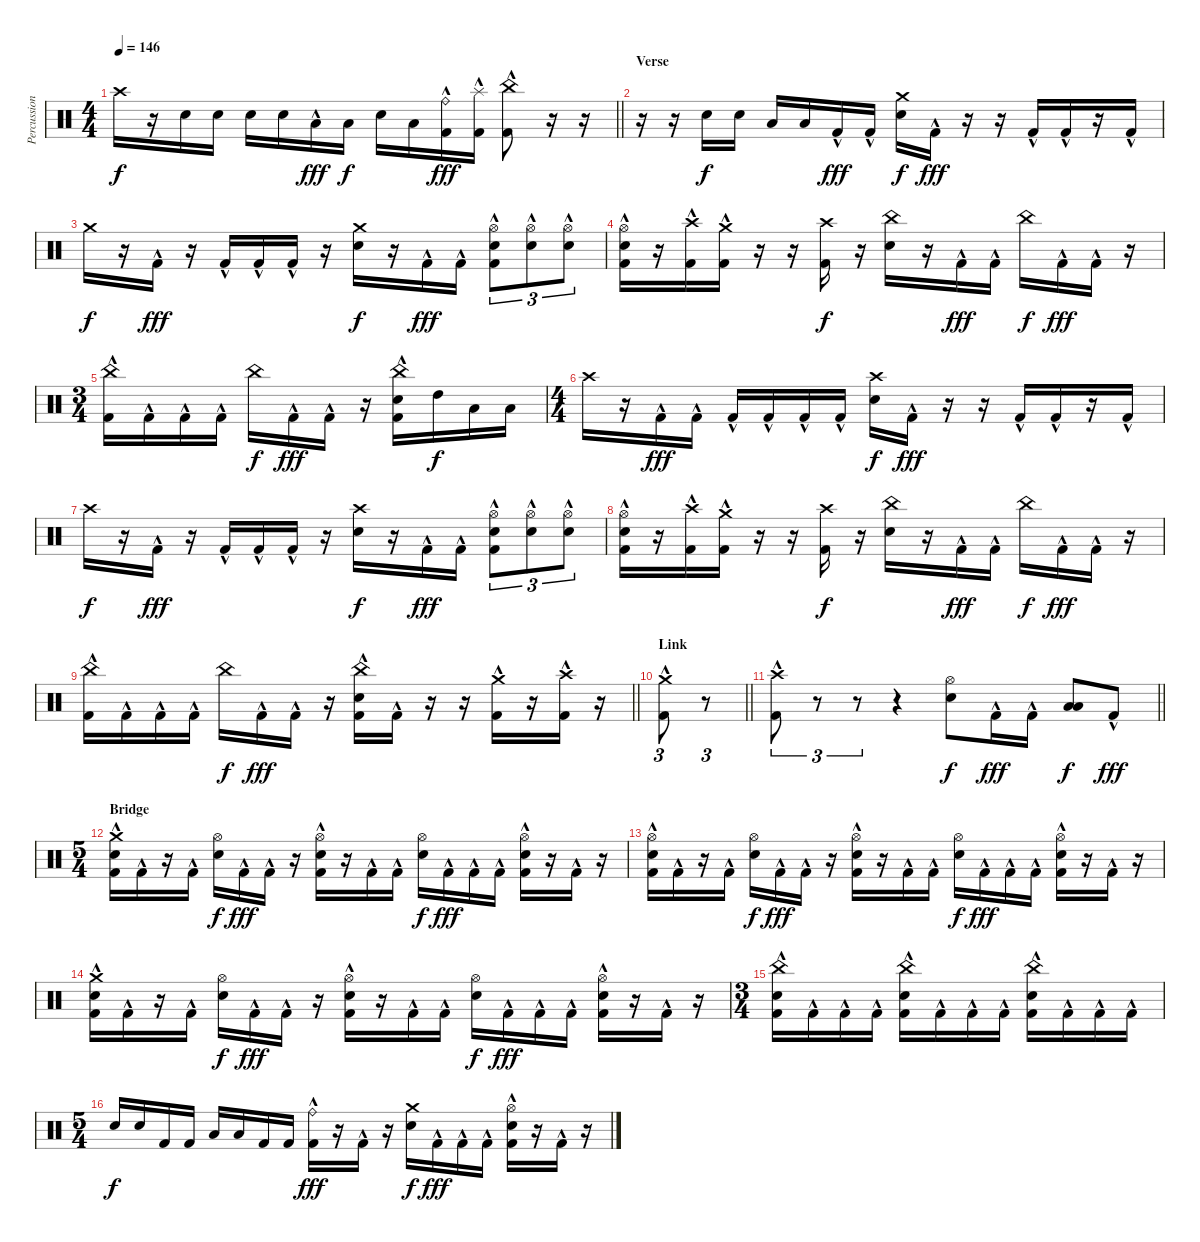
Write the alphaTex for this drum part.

\track ("Percussion" "Percussion") {instrument percussion}
\staff {score}
\articulation defaults
\ts (4 4)
\tempo 146
\clef neutral
\barLineRight lightlight
\ks aminor "Crash high (hit)".16{dy f}
r.16 "Electric Snare (hit)".16 "Electric Snare (hit)".16 "Electric Snare (hit)".16 "Electric Snare (hit)".16 "Low Floor Tom (hit)"{hac}.16{dy fff} "Low Tom (hit)".16{dy f} "Electric Snare (hit)".16 "Low Tom (hit)".16 ("Kick (hit) 2"{hac} "Ride (bell)").16{dy fff} ("Kick (hit) 2"{hac} "Splash (hit)"{hac}).16 ("Kick (hit) 2"{hac} "China (hit)").8 r.16 r.16 |
\section ("" "Verse")
r.16 r.16 "Electric Snare (hit)".16{dy f} "Electric Snare (hit)".16 "Low Tom (hit)".16 "Low Floor Tom (hit)".16 "Kick (hit) 2"{hac}.16{dy fff} "Kick (hit) 2"{hac}.16 ("Crash medium (hit)" "Electric Snare (hit)").16{dy f} "Kick (hit) 2"{hac}.16{dy fff} r.16 r.16 "Kick (hit) 2"{hac}.16 "Kick (hit) 2"{hac}.16 r.16 "Kick (hit) 2"{hac}.16 |
"Crash medium (hit)".16{dy f} r.16 "Kick (hit) 2"{hac}.16{dy fff} r.16 "Kick (hit) 2"{hac}.16 "Kick (hit) 2"{hac}.16 "Kick (hit) 2"{hac}.16 r.16 ("Electric Snare (hit)" "Crash medium (hit)").16{dy f} r.16 "Kick (hit) 2"{hac}.16{dy fff} "Kick (hit) 2"{hac}.16 ("Hi-Hat (open)" "Electric Snare (hit)" "Kick (hit) 2"{hac}).8{tu (3 2)} ("Hi-Hat (open)" "Electric Snare (hit)"{hac}).8{tu (3 2)} ("Hi-Hat (open)" "Electric Snare (hit)"{hac}).8{tu (3 2)} |
("Hi-Hat (open)" "Electric Snare (hit)" "Kick (hit) 2"{hac}).16 r.16 ("Crash high (hit)" "Kick (hit) 2"{hac}).16 ("Crash medium (hit)" "Kick (hit) 2"{hac}).16 r.16 r.16 ("Crash high (hit)" "Kick (hit) 2").16{dy f} r.16 ("Electric Snare (hit)" "China (hit)").16 r.16 "Kick (hit) 2"{hac}.16{dy fff} "Kick (hit) 2"{hac}.16 "China (hit)".16{dy f} "Kick (hit) 2"{hac}.16{dy fff} "Kick (hit) 2"{hac}.16 r.16 |
\ts (3 4)
("Kick (hit) 2"{hac} "China (hit)").16 "Kick (hit) 2"{hac}.16 "Kick (hit) 2"{hac}.16 "Kick (hit) 2"{hac}.16 "China (hit)".16{dy f} "Kick (hit) 2"{hac}.16{dy fff} "Kick (hit) 2"{hac}.16 r.16 ("Kick (hit) 2"{hac} "Electric Snare (hit)" "China (hit)").16 "High Tom (hit)".16{dy f} "Low Tom (hit)".16 "Low Floor Tom (hit)".16 |
\ts (4 4)
"Crash high (hit)".16 r.16 "Kick (hit) 2"{hac}.16{dy fff} "Kick (hit) 2"{hac}.16 "Kick (hit) 2"{hac}.16 "Kick (hit) 2"{hac}.16 "Kick (hit) 2"{hac}.16 "Kick (hit) 2"{hac}.16 ("Crash high (hit)" "Electric Snare (hit)").16{dy f} "Kick (hit) 2"{hac}.16{dy fff} r.16 r.16 "Kick (hit) 2"{hac}.16 "Kick (hit) 2"{hac}.16 r.16 "Kick (hit) 2"{hac}.16 |
"Crash high (hit)".16{dy f} r.16 "Kick (hit) 2"{hac}.16{dy fff} r.16 "Kick (hit) 2"{hac}.16 "Kick (hit) 2"{hac}.16 "Kick (hit) 2"{hac}.16 r.16 ("Crash high (hit)" "Electric Snare (hit)").16{dy f} r.16 "Kick (hit) 2"{hac}.16{dy fff} "Kick (hit) 2"{hac}.16 ("Hi-Hat (open)" "Electric Snare (hit)" "Kick (hit) 2"{hac}).8{tu (3 2)} ("Hi-Hat (open)" "Electric Snare (hit)"{hac}).8{tu (3 2)} ("Hi-Hat (open)" "Electric Snare (hit)"{hac}).8{tu (3 2)} |
("Hi-Hat (open)" "Electric Snare (hit)" "Kick (hit) 2"{hac}).16 r.16 ("Crash high (hit)" "Kick (hit) 2"{hac}).16 ("Crash medium (hit)" "Kick (hit) 2"{hac}).16 r.16 r.16 ("Crash high (hit)" "Kick (hit) 2").16{dy f} r.16 ("Electric Snare (hit)" "China (hit)").16 r.16 "Kick (hit) 2"{hac}.16{dy fff} "Kick (hit) 2"{hac}.16 "China (hit)".16{dy f} "Kick (hit) 2"{hac}.16{dy fff} "Kick (hit) 2"{hac}.16 r.16 |
\barLineRight lightlight
("Kick (hit) 2"{hac} "China (hit)").16 "Kick (hit) 2"{hac}.16 "Kick (hit) 2"{hac}.16 "Kick (hit) 2"{hac}.16 "China (hit)".16{dy f} "Kick (hit) 2"{hac}.16{dy fff} "Kick (hit) 2"{hac}.16 r.16 ("Kick (hit) 2"{hac} "Electric Snare (hit)" "China (hit)").16 "Kick (hit) 2"{hac}.16 r.16 r.16 ("Crash medium (hit)" "Kick (hit) 2"{hac}).16 r.16 ("Crash high (hit)" "Kick (hit) 2"{hac}).16 r.16 |
\section ("" "Link")
\barLineRight lightlight
("Crash medium (hit)" "Kick (hit) 2"{hac}).8{tu (3 2)} r.8{tu (3 2) volume 0} |
\barLineRight lightlight
("Crash high (hit)" "Kick (hit) 2"{hac}).8{tu (3 2) volume 13} r.8{tu (3 2) volume 0} r.8{tu (3 2)} r.4 ("Electric Snare (hit)" "Hi-Hat (open)").8{dy f volume 13} "Kick (hit) 2"{hac}.16{dy fff} "Kick (hit) 2"{hac}.16 ("Low Tom (hit)" "Low Floor Tom (hit)").8{dy f} "Kick (hit) 2"{hac}.8{dy fff} |
\ts (5 4)
\section ("" "Bridge")
("Kick (hit) 2"{hac} "Electric Snare (hit)" "Crash medium (hit)").16 "Kick (hit) 2"{hac}.16 r.16 "Kick (hit) 2"{hac}.16 ("Electric Snare (hit)" "Hi-Hat (open)").16{dy f} "Kick (hit) 2"{hac}.16{dy fff} "Kick (hit) 2"{hac}.16 r.16 ("Kick (hit) 2"{hac} "Electric Snare (hit)" "Hi-Hat (open)").16 r.16 "Kick (hit) 2"{hac}.16 "Kick (hit) 2"{hac}.16 ("Electric Snare (hit)" "Hi-Hat (open)").16{dy f} "Kick (hit) 2"{hac}.16{dy fff} "Kick (hit) 2"{hac}.16 "Kick (hit) 2"{hac}.16 ("Kick (hit) 2"{hac} "Electric Snare (hit)" "Hi-Hat (open)").16 r.16 "Kick (hit) 2"{hac}.16 r.16 |
("Kick (hit) 2"{hac} "Electric Snare (hit)" "Hi-Hat (open)").16 "Kick (hit) 2"{hac}.16 r.16 "Kick (hit) 2"{hac}.16 ("Electric Snare (hit)" "Hi-Hat (open)").16{dy f} "Kick (hit) 2"{hac}.16{dy fff} "Kick (hit) 2"{hac}.16 r.16 ("Kick (hit) 2"{hac} "Electric Snare (hit)" "Hi-Hat (open)").16 r.16 "Kick (hit) 2"{hac}.16 "Kick (hit) 2"{hac}.16 ("Electric Snare (hit)" "Hi-Hat (open)").16{dy f} "Kick (hit) 2"{hac}.16{dy fff} "Kick (hit) 2"{hac}.16 "Kick (hit) 2"{hac}.16 ("Kick (hit) 2"{hac} "Electric Snare (hit)" "Hi-Hat (open)").16 r.16 "Kick (hit) 2"{hac}.16 r.16 |
("Kick (hit) 2"{hac} "Electric Snare (hit)" "Crash medium (hit)").16 "Kick (hit) 2"{hac}.16 r.16 "Kick (hit) 2"{hac}.16 ("Electric Snare (hit)" "Hi-Hat (open)").16{dy f} "Kick (hit) 2"{hac}.16{dy fff} "Kick (hit) 2"{hac}.16 r.16 ("Kick (hit) 2"{hac} "Electric Snare (hit)" "Hi-Hat (open)").16 r.16 "Kick (hit) 2"{hac}.16 "Kick (hit) 2"{hac}.16 ("Electric Snare (hit)" "Hi-Hat (open)").16{dy f} "Kick (hit) 2"{hac}.16{dy fff} "Kick (hit) 2"{hac}.16 "Kick (hit) 2"{hac}.16 ("Kick (hit) 2"{hac} "Electric Snare (hit)" "Hi-Hat (open)").16 r.16 "Kick (hit) 2"{hac}.16 r.16 |
\ts (3 4)
("Kick (hit) 2"{hac} "Electric Snare (hit)" "China (hit)").16 "Kick (hit) 2"{hac}.16 "Kick (hit) 2"{hac}.16 "Kick (hit) 2"{hac}.16 ("Kick (hit) 2"{hac} "Electric Snare (hit)" "China (hit)").16 "Kick (hit) 2"{hac}.16 "Kick (hit) 2"{hac}.16 "Kick (hit) 2"{hac}.16 ("Kick (hit) 2"{hac} "Electric Snare (hit)" "China (hit)").16 "Kick (hit) 2"{hac}.16 "Kick (hit) 2"{hac}.16 "Kick (hit) 2"{hac}.16 |
\ts (5 4)
"Electric Snare (hit)".16{dy f} "Electric Snare (hit)".16 "Kick (hit) 2".16 "Kick (hit) 2".16 "Low Floor Tom (hit)".16 "Low Floor Tom (hit)".16 "Kick (hit) 2".16 "Kick (hit) 2".16 ("Ride (bell)" "Kick (hit) 2"{hac}).16{dy fff} r.16 "Kick (hit) 2"{hac}.16 r.16 ("Electric Snare (hit)" "Crash medium (hit)").16{dy f} "Kick (hit) 2"{hac}.16{dy fff} "Kick (hit) 2"{hac}.16 "Kick (hit) 2"{hac}.16 ("Kick (hit) 2"{hac} "Electric Snare (hit)" "Hi-Hat (open)").16 r.16 "Kick (hit) 2"{hac}.16 r.16
